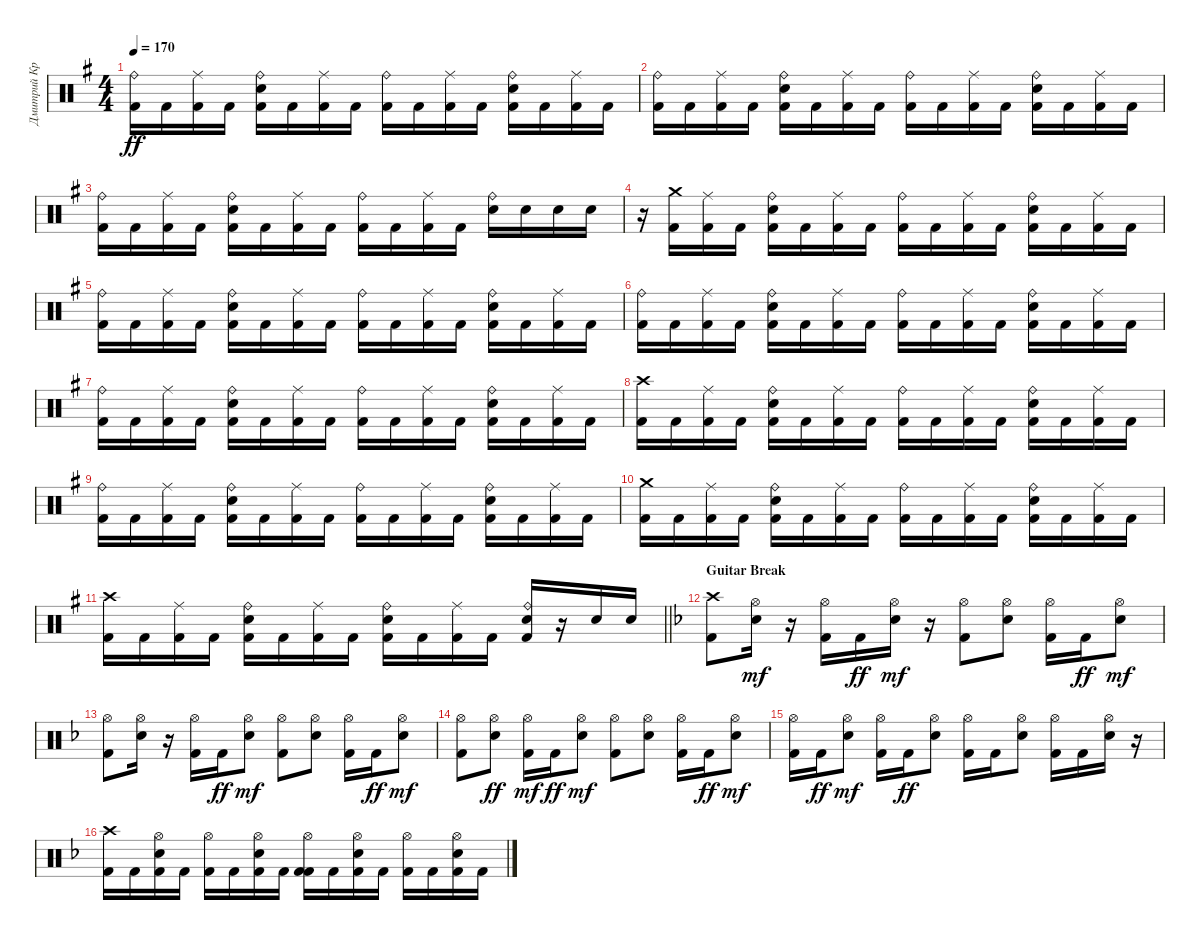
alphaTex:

\track ("Дмитрий Кривенков" "Дмитрий Кр") {instrument percussion}
\staff {score}
\articulation defaults
\ts (4 4)
\tempo 170
\clef neutral
\ks g
("Kick (hit) 2" "Ride (bell)").16{dy ff} "Kick (hit) 2".16 ("Kick (hit) 2" "Ride (middle)").16 "Kick (hit) 2".16 ("Kick (hit) 2" "Ride (bell)" "Electric Snare (hit)").16 "Kick (hit) 2".16 ("Kick (hit) 2" "Ride (middle)").16 "Kick (hit) 2".16 ("Kick (hit) 2" "Ride (bell)").16 "Kick (hit) 2".16 ("Kick (hit) 2" "Ride (middle)").16 "Kick (hit) 2".16 ("Kick (hit) 2" "Ride (bell)" "Electric Snare (hit)").16 "Kick (hit) 2".16 ("Kick (hit) 2" "Ride (middle)").16 "Kick (hit) 2".16 |
("Kick (hit) 2" "Ride (bell)").16 "Kick (hit) 2".16 ("Kick (hit) 2" "Ride (middle)").16 "Kick (hit) 2".16 ("Kick (hit) 2" "Ride (bell)" "Electric Snare (hit)").16 "Kick (hit) 2".16 ("Kick (hit) 2" "Ride (middle)").16 "Kick (hit) 2".16 ("Kick (hit) 2" "Ride (bell)").16 "Kick (hit) 2".16 ("Kick (hit) 2" "Ride (middle)").16 "Kick (hit) 2".16 ("Kick (hit) 2" "Ride (bell)" "Electric Snare (hit)").16 "Kick (hit) 2".16 ("Kick (hit) 2" "Ride (middle)").16 "Kick (hit) 2".16 |
("Kick (hit) 2" "Ride (bell)").16 "Kick (hit) 2".16 ("Kick (hit) 2" "Ride (middle)").16 "Kick (hit) 2".16 ("Kick (hit) 2" "Ride (bell)" "Electric Snare (hit)").16 "Kick (hit) 2".16 ("Kick (hit) 2" "Ride (middle)").16 "Kick (hit) 2".16 ("Kick (hit) 2" "Ride (bell)").16 "Kick (hit) 2".16 ("Kick (hit) 2" "Ride (middle)").16 "Kick (hit) 2".16 ("Ride (bell)" "Electric Snare (hit)").16 "Electric Snare (hit)".16 "Electric Snare (hit)".16 "Electric Snare (hit)".16 |
r.16 ("Crash medium (hit)" "Kick (hit) 2").16 ("Kick (hit) 2" "Ride (middle)").16 "Kick (hit) 2".16 ("Kick (hit) 2" "Ride (bell)" "Electric Snare (hit)").16 "Kick (hit) 2".16 ("Kick (hit) 2" "Ride (middle)").16 "Kick (hit) 2".16 ("Kick (hit) 2" "Ride (bell)").16 "Kick (hit) 2".16 ("Kick (hit) 2" "Ride (middle)").16 "Kick (hit) 2".16 ("Kick (hit) 2" "Ride (bell)" "Electric Snare (hit)").16 "Kick (hit) 2".16 ("Kick (hit) 2" "Ride (middle)").16 "Kick (hit) 2".16 |
("Kick (hit) 2" "Ride (bell)").16 "Kick (hit) 2".16 ("Kick (hit) 2" "Ride (middle)").16 "Kick (hit) 2".16 ("Kick (hit) 2" "Ride (bell)" "Electric Snare (hit)").16 "Kick (hit) 2".16 ("Kick (hit) 2" "Ride (middle)").16 "Kick (hit) 2".16 ("Kick (hit) 2" "Ride (bell)").16 "Kick (hit) 2".16 ("Kick (hit) 2" "Ride (middle)").16 "Kick (hit) 2".16 ("Kick (hit) 2" "Ride (bell)" "Electric Snare (hit)").16 "Kick (hit) 2".16 ("Kick (hit) 2" "Ride (middle)").16 "Kick (hit) 2".16 |
("Kick (hit) 2" "Ride (bell)").16 "Kick (hit) 2".16 ("Kick (hit) 2" "Ride (middle)").16 "Kick (hit) 2".16 ("Kick (hit) 2" "Ride (bell)" "Electric Snare (hit)").16 "Kick (hit) 2".16 ("Kick (hit) 2" "Ride (middle)").16 "Kick (hit) 2".16 ("Kick (hit) 2" "Ride (bell)").16 "Kick (hit) 2".16 ("Kick (hit) 2" "Ride (middle)").16 "Kick (hit) 2".16 ("Kick (hit) 2" "Ride (bell)" "Electric Snare (hit)").16 "Kick (hit) 2".16 ("Kick (hit) 2" "Ride (middle)").16 "Kick (hit) 2".16 |
("Kick (hit) 2" "Ride (bell)").16 "Kick (hit) 2".16 ("Kick (hit) 2" "Ride (middle)").16 "Kick (hit) 2".16 ("Kick (hit) 2" "Ride (bell)" "Electric Snare (hit)").16 "Kick (hit) 2".16 ("Kick (hit) 2" "Ride (middle)").16 "Kick (hit) 2".16 ("Kick (hit) 2" "Ride (bell)").16 "Kick (hit) 2".16 ("Kick (hit) 2" "Ride (middle)").16 "Kick (hit) 2".16 ("Kick (hit) 2" "Ride (bell)" "Electric Snare (hit)").16 "Kick (hit) 2".16 ("Kick (hit) 2" "Ride (middle)").16 "Kick (hit) 2".16 |
("Kick (hit) 2" "Crash high (hit)").16 "Kick (hit) 2".16 ("Kick (hit) 2" "Ride (middle)").16 "Kick (hit) 2".16 ("Kick (hit) 2" "Ride (bell)" "Electric Snare (hit)").16 "Kick (hit) 2".16 ("Kick (hit) 2" "Ride (middle)").16 "Kick (hit) 2".16 ("Kick (hit) 2" "Ride (bell)").16 "Kick (hit) 2".16 ("Kick (hit) 2" "Ride (middle)").16 "Kick (hit) 2".16 ("Kick (hit) 2" "Ride (bell)" "Electric Snare (hit)").16 "Kick (hit) 2".16 ("Kick (hit) 2" "Ride (middle)").16 "Kick (hit) 2".16 |
("Kick (hit) 2" "Ride (bell)").16 "Kick (hit) 2".16 ("Kick (hit) 2" "Ride (middle)").16 "Kick (hit) 2".16 ("Kick (hit) 2" "Ride (bell)" "Electric Snare (hit)").16 "Kick (hit) 2".16 ("Kick (hit) 2" "Ride (middle)").16 "Kick (hit) 2".16 ("Kick (hit) 2" "Ride (bell)").16 "Kick (hit) 2".16 ("Kick (hit) 2" "Ride (middle)").16 "Kick (hit) 2".16 ("Kick (hit) 2" "Ride (bell)" "Electric Snare (hit)").16 "Kick (hit) 2".16 ("Kick (hit) 2" "Ride (middle)").16 "Kick (hit) 2".16 |
("Kick (hit) 2" "Crash medium (hit)").16 "Kick (hit) 2".16 ("Kick (hit) 2" "Ride (middle)").16 "Kick (hit) 2".16 ("Kick (hit) 2" "Ride (bell)" "Electric Snare (hit)").16 "Kick (hit) 2".16 ("Kick (hit) 2" "Ride (middle)").16 "Kick (hit) 2".16 ("Kick (hit) 2" "Ride (bell)").16 "Kick (hit) 2".16 ("Kick (hit) 2" "Ride (middle)").16 "Kick (hit) 2".16 ("Kick (hit) 2" "Ride (bell)" "Electric Snare (hit)").16 "Kick (hit) 2".16 ("Kick (hit) 2" "Ride (middle)").16 "Kick (hit) 2".16 |
\barLineRight lightlight
("Kick (hit) 2" "Crash high (hit)").16 "Kick (hit) 2".16 ("Kick (hit) 2" "Ride (middle)").16 "Kick (hit) 2".16 ("Kick (hit) 2" "Ride (bell)" "Electric Snare (hit)").16 "Kick (hit) 2".16 ("Kick (hit) 2" "Ride (middle)").16 "Kick (hit) 2".16 ("Kick (hit) 2" "Ride (bell)" "Electric Snare (hit)").16 "Kick (hit) 2".16 ("Kick (hit) 2" "Ride (middle)").16 "Kick (hit) 2".16 ("Kick (hit) 2" "Ride (bell)" "Electric Snare (hit)").16 r.16 "Electric Snare (hit)".16 "Electric Snare (hit)".16 |
\section ("" "Guitar Break")
\ks f
("Kick (hit) 2" "Crash high (hit)").8 ("Electric Snare (hit)" "Hi-Hat (open)").16{dy mf} r.16 ("Kick (hit) 2" "Hi-Hat (open)").16 "Kick (hit) 2".16{dy ff} ("Electric Snare (hit)" "Hi-Hat (open)").16{dy mf} r.16 ("Kick (hit) 2" "Hi-Hat (open)").8 ("Electric Snare (hit)" "Hi-Hat (open)").8 ("Kick (hit) 2" "Hi-Hat (open)").16 "Kick (hit) 2".16{dy ff} ("Electric Snare (hit)" "Hi-Hat (open)").8{dy mf} |
("Kick (hit) 2" "Hi-Hat (open)").8 ("Electric Snare (hit)" "Hi-Hat (open)").16 r.16 ("Kick (hit) 2" "Hi-Hat (open)").16 "Kick (hit) 2".16{dy ff} ("Electric Snare (hit)" "Hi-Hat (open)").8{dy mf} ("Kick (hit) 2" "Hi-Hat (open)").8 ("Electric Snare (hit)" "Hi-Hat (open)").8 ("Kick (hit) 2" "Hi-Hat (open)").16 "Kick (hit) 2".16{dy ff} ("Electric Snare (hit)" "Hi-Hat (open)").8{dy mf} |
("Kick (hit) 2" "Hi-Hat (open)").8 ("Hi-Hat (open)" "Electric Snare (hit)").8{dy ff} ("Kick (hit) 2" "Hi-Hat (open)").16{dy mf} "Kick (hit) 2".16{dy ff} ("Electric Snare (hit)" "Hi-Hat (open)").8{dy mf} ("Kick (hit) 2" "Hi-Hat (open)").8 ("Electric Snare (hit)" "Hi-Hat (open)").8 ("Kick (hit) 2" "Hi-Hat (open)").16 "Kick (hit) 2".16{dy ff} ("Electric Snare (hit)" "Hi-Hat (open)").8{dy mf} |
("Kick (hit) 2" "Hi-Hat (open)").16 "Kick (hit) 2".16{dy ff} ("Electric Snare (hit)" "Hi-Hat (open)").8{dy mf} ("Kick (hit) 2" "Hi-Hat (open)").16 "Kick (hit) 2".16{dy ff} ("Hi-Hat (open)" "Electric Snare (hit)").8 ("Hi-Hat (open)" "Kick (hit) 2").16 "Kick (hit) 2".16 ("Hi-Hat (open)" "Electric Snare (hit)").8 ("Hi-Hat (open)" "Kick (hit) 2").16 "Kick (hit) 2".16 ("Hi-Hat (open)" "Electric Snare (hit)").16 r.16 |
("Crash high (hit)" "Kick (hit) 2").16 "Kick (hit) 2".16 ("Hi-Hat (open)" "Electric Snare (hit)" "Kick (hit) 2").16 "Kick (hit) 2".16 ("Hi-Hat (open)" "Kick (hit) 2").16 "Kick (hit) 2".16 ("Kick (hit) 2" "Hi-Hat (open)" "Electric Snare (hit)").16 "Kick (hit) 2".16 ("Kick (hit) 2" "Hi-Hat (open)" "Kick (hit) 2").16 "Kick (hit) 2".16 ("Kick (hit) 2" "Hi-Hat (open)" "Electric Snare (hit)").16 "Kick (hit) 2".16 ("Hi-Hat (open)" "Kick (hit) 2").16 "Kick (hit) 2".16 ("Hi-Hat (open)" "Electric Snare (hit)" "Kick (hit) 2").16 "Kick (hit) 2".16
